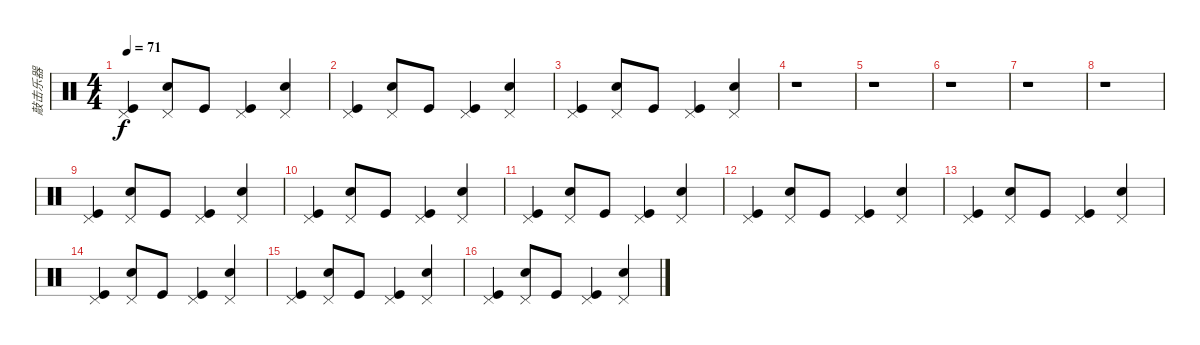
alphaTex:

\track ("敲击乐器" "敲击乐器") {instrument percussion}
\staff {score}
\articulation defaults
\ts (4 4)
\tempo 71
\clef neutral
\ks c
("Pedal Hi-Hat (hit)" "Kick (hit)").4{dy f} ("Pedal Hi-Hat (hit)" "Snare (hit) 2").8 "Kick (hit)".8 ("Pedal Hi-Hat (hit)" "Kick (hit)").4 ("Pedal Hi-Hat (hit)" "Snare (hit) 2").4 |
("Pedal Hi-Hat (hit)" "Kick (hit)").4 ("Pedal Hi-Hat (hit)" "Snare (hit) 2").8 "Kick (hit)".8 ("Pedal Hi-Hat (hit)" "Kick (hit)").4 ("Pedal Hi-Hat (hit)" "Snare (hit) 2").4 |
("Pedal Hi-Hat (hit)" "Kick (hit)").4 ("Pedal Hi-Hat (hit)" "Snare (hit) 2").8 "Kick (hit)".8 ("Pedal Hi-Hat (hit)" "Kick (hit)").4 ("Pedal Hi-Hat (hit)" "Snare (hit) 2").4 |
r.1 |
r.1 |
r.1 |
r.1 |
r.1 |
("Pedal Hi-Hat (hit)" "Kick (hit)").4 ("Pedal Hi-Hat (hit)" "Snare (hit) 2").8 "Kick (hit)".8 ("Pedal Hi-Hat (hit)" "Kick (hit)").4 ("Pedal Hi-Hat (hit)" "Snare (hit) 2").4 |
("Pedal Hi-Hat (hit)" "Kick (hit)").4 ("Pedal Hi-Hat (hit)" "Snare (hit) 2").8 "Kick (hit)".8 ("Pedal Hi-Hat (hit)" "Kick (hit)").4 ("Pedal Hi-Hat (hit)" "Snare (hit) 2").4 |
("Pedal Hi-Hat (hit)" "Kick (hit)").4 ("Pedal Hi-Hat (hit)" "Snare (hit) 2").8 "Kick (hit)".8 ("Pedal Hi-Hat (hit)" "Kick (hit)").4 ("Pedal Hi-Hat (hit)" "Snare (hit) 2").4 |
("Pedal Hi-Hat (hit)" "Kick (hit)").4 ("Pedal Hi-Hat (hit)" "Snare (hit) 2").8 "Kick (hit)".8 ("Pedal Hi-Hat (hit)" "Kick (hit)").4 ("Pedal Hi-Hat (hit)" "Snare (hit) 2").4 |
("Pedal Hi-Hat (hit)" "Kick (hit)").4 ("Pedal Hi-Hat (hit)" "Snare (hit) 2").8 "Kick (hit)".8 ("Pedal Hi-Hat (hit)" "Kick (hit)").4 ("Pedal Hi-Hat (hit)" "Snare (hit) 2").4 |
("Pedal Hi-Hat (hit)" "Kick (hit)").4 ("Pedal Hi-Hat (hit)" "Snare (hit) 2").8 "Kick (hit)".8 ("Pedal Hi-Hat (hit)" "Kick (hit)").4 ("Pedal Hi-Hat (hit)" "Snare (hit) 2").4 |
("Pedal Hi-Hat (hit)" "Kick (hit)").4 ("Pedal Hi-Hat (hit)" "Snare (hit) 2").8 "Kick (hit)".8 ("Pedal Hi-Hat (hit)" "Kick (hit)").4 ("Pedal Hi-Hat (hit)" "Snare (hit) 2").4 |
("Pedal Hi-Hat (hit)" "Kick (hit)").4 ("Pedal Hi-Hat (hit)" "Snare (hit) 2").8 "Kick (hit)".8 ("Pedal Hi-Hat (hit)" "Kick (hit)").4 ("Pedal Hi-Hat (hit)" "Snare (hit) 2").4
